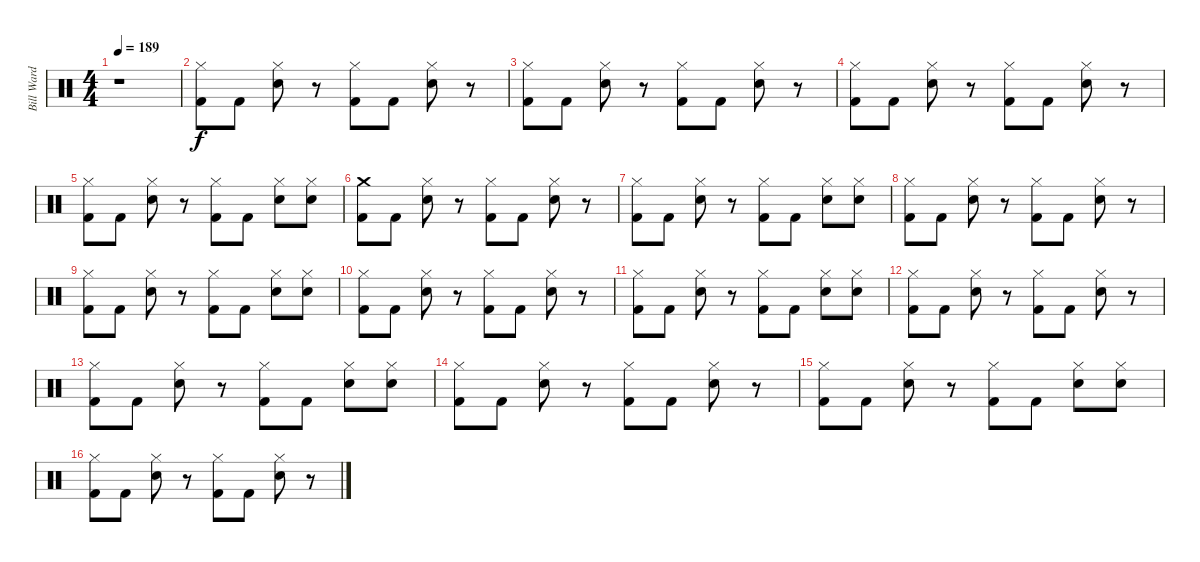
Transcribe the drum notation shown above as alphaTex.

\track ("Bill Ward" "Bill Ward") {instrument percussion}
\staff {score}
\articulation defaults
\ts (4 4)
\tempo 189
\clef neutral
\ks c
r.1{dy f} |
("Hi-Hat (closed)" "Kick (hit) 2").8 "Kick (hit) 2".8 ("Hi-Hat (closed)" "Electric Snare (hit)").8 r.8 ("Kick (hit) 2" "Hi-Hat (closed)").8 "Kick (hit) 2".8 ("Hi-Hat (closed)" "Electric Snare (hit)").8 r.8 |
("Hi-Hat (closed)" "Kick (hit) 2").8 "Kick (hit) 2".8 ("Electric Snare (hit)" "Hi-Hat (closed)").8 r.8 ("Kick (hit) 2" "Hi-Hat (closed)").8 "Kick (hit) 2".8 ("Electric Snare (hit)" "Hi-Hat (closed)").8 r.8 |
("Kick (hit) 2" "Hi-Hat (closed)").8 "Kick (hit) 2".8 ("Hi-Hat (closed)" "Electric Snare (hit)").8 r.8 ("Kick (hit) 2" "Hi-Hat (closed)").8 "Kick (hit) 2".8 ("Hi-Hat (closed)" "Electric Snare (hit)").8 r.8 |
("Hi-Hat (closed)" "Kick (hit) 2").8 "Kick (hit) 2".8 ("Hi-Hat (closed)" "Electric Snare (hit)").8 r.8 ("Hi-Hat (closed)" "Kick (hit) 2").8 "Kick (hit) 2".8 ("Electric Snare (hit)" "Hi-Hat (closed)").8 ("Hi-Hat (closed)" "Electric Snare (hit)").8 |
("Kick (hit) 2" "Crash medium (hit)").8 "Kick (hit) 2".8 ("Hi-Hat (closed)" "Electric Snare (hit)").8 r.8 ("Kick (hit) 2" "Hi-Hat (closed)").8 "Kick (hit) 2".8 ("Electric Snare (hit)" "Hi-Hat (closed)").8 r.8 |
("Kick (hit) 2" "Hi-Hat (closed)").8 "Kick (hit) 2".8 ("Hi-Hat (closed)" "Electric Snare (hit)").8 r.8 ("Hi-Hat (closed)" "Kick (hit) 2").8 "Kick (hit) 2".8 ("Hi-Hat (closed)" "Electric Snare (hit)").8 ("Hi-Hat (closed)" "Electric Snare (hit)").8 |
("Hi-Hat (closed)" "Kick (hit) 2").8 "Kick (hit) 2".8 ("Hi-Hat (closed)" "Electric Snare (hit)").8 r.8 ("Hi-Hat (closed)" "Kick (hit) 2").8 "Kick (hit) 2".8 ("Hi-Hat (closed)" "Electric Snare (hit)").8 r.8 |
("Hi-Hat (closed)" "Kick (hit) 2").8 "Kick (hit) 2".8 ("Hi-Hat (closed)" "Electric Snare (hit)").8 r.8 ("Kick (hit) 2" "Hi-Hat (closed)").8 "Kick (hit) 2".8 ("Hi-Hat (closed)" "Electric Snare (hit)").8 ("Electric Snare (hit)" "Hi-Hat (closed)").8 |
("Hi-Hat (closed)" "Kick (hit) 2").8 "Kick (hit) 2".8 ("Hi-Hat (closed)" "Electric Snare (hit)").8 r.8 ("Kick (hit) 2" "Hi-Hat (closed)").8 "Kick (hit) 2".8 ("Hi-Hat (closed)" "Electric Snare (hit)").8 r.8 |
("Hi-Hat (closed)" "Kick (hit) 2").8 "Kick (hit) 2".8 ("Hi-Hat (closed)" "Electric Snare (hit)").8 r.8 ("Kick (hit) 2" "Hi-Hat (closed)").8 "Kick (hit) 2".8 ("Hi-Hat (closed)" "Electric Snare (hit)").8 ("Hi-Hat (closed)" "Electric Snare (hit)").8 |
("Hi-Hat (closed)" "Kick (hit) 2").8 "Kick (hit) 2".8 ("Hi-Hat (closed)" "Electric Snare (hit)").8 r.8 ("Hi-Hat (closed)" "Kick (hit) 2").8 "Kick (hit) 2".8 ("Electric Snare (hit)" "Hi-Hat (closed)").8 r.8 |
("Kick (hit) 2" "Hi-Hat (closed)").8 "Kick (hit) 2".8 ("Electric Snare (hit)" "Hi-Hat (closed)").8 r.8 ("Kick (hit) 2" "Hi-Hat (closed)").8 "Kick (hit) 2".8 ("Hi-Hat (closed)" "Electric Snare (hit)").8 ("Electric Snare (hit)" "Hi-Hat (closed)").8 |
("Hi-Hat (closed)" "Kick (hit) 2").8 "Kick (hit) 2".8 ("Hi-Hat (closed)" "Electric Snare (hit)").8 r.8 ("Kick (hit) 2" "Hi-Hat (closed)").8 "Kick (hit) 2".8 ("Electric Snare (hit)" "Hi-Hat (closed)").8 r.8 |
("Hi-Hat (closed)" "Kick (hit) 2").8 "Kick (hit) 2".8 ("Hi-Hat (closed)" "Electric Snare (hit)").8 r.8 ("Hi-Hat (closed)" "Kick (hit) 2").8 "Kick (hit) 2".8 ("Hi-Hat (closed)" "Electric Snare (hit)").8 ("Electric Snare (hit)" "Hi-Hat (closed)").8 |
("Kick (hit) 2" "Hi-Hat (closed)").8 "Kick (hit) 2".8 ("Hi-Hat (closed)" "Electric Snare (hit)").8 r.8 ("Hi-Hat (closed)" "Kick (hit) 2").8 "Kick (hit) 2".8 ("Electric Snare (hit)" "Hi-Hat (closed)").8 r.8
